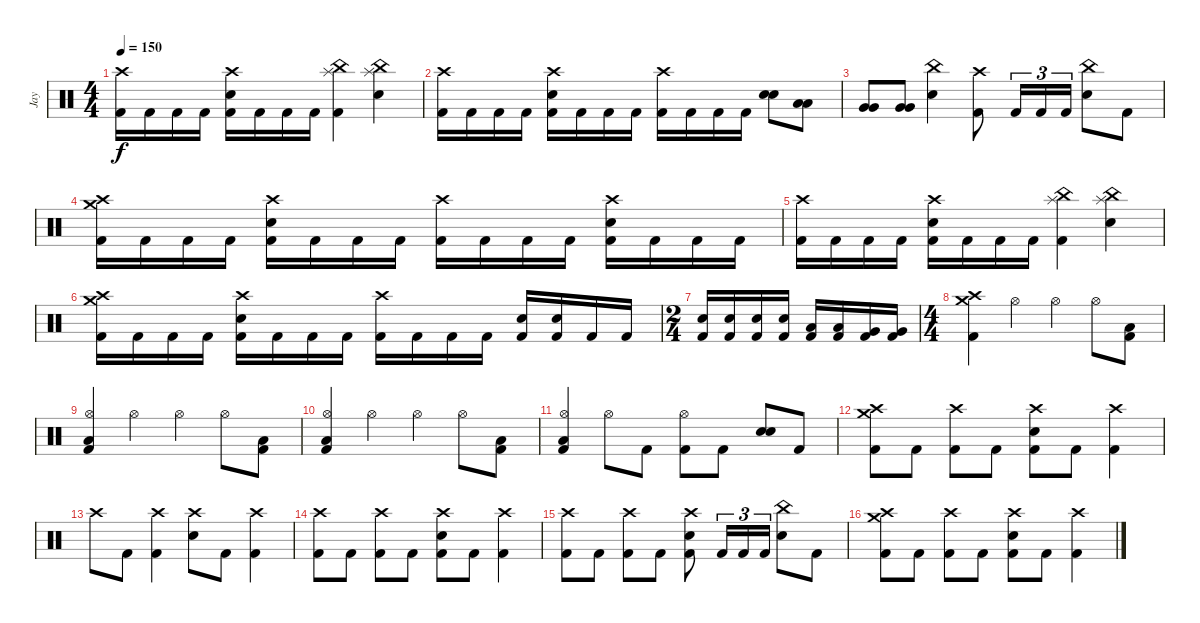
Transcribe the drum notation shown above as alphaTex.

\track ("Jay" "Jay") {instrument percussion}
\staff {score}
\articulation defaults
\ts (4 4)
\tempo 150
\clef neutral
\ks c
("Crash high (hit)" "Kick (hit) 2").16{dy f} "Kick (hit) 2".16 "Kick (hit) 2".16 "Kick (hit) 2".16 ("Crash high (hit)" "Electric Snare (hit)" "Kick (hit) 2").16 "Kick (hit) 2".16 "Kick (hit) 2".16 "Kick (hit) 2".16 ("China (hit)" "Splash (hit)" "Kick (hit) 2").4 ("China (hit)" "Splash (hit)" "Electric Snare (hit)").4 |
("Crash high (hit)" "Kick (hit) 2").16 "Kick (hit) 2".16 "Kick (hit) 2".16 "Kick (hit) 2".16 ("Crash high (hit)" "Electric Snare (hit)" "Kick (hit) 2").16 "Kick (hit) 2".16 "Kick (hit) 2".16 "Kick (hit) 2".16 ("Crash high (hit)" "Kick (hit) 2").16 "Kick (hit) 2".16 "Kick (hit) 2".16 "Kick (hit) 2".16 ("Electric Snare (hit)" "Electric Snare (hit)").8{bu 120} ("Low Tom (hit)" "Low Tom (hit)").8{bu 120} |
("Very Low Tom (hit)" "Very Low Tom (hit)").8{bu 120} ("Very Low Tom (hit)" "Very Low Tom (hit)").8{bu 120} ("China (hit)" "Electric Snare (hit)").4 ("Crash high (hit)" "Kick (hit) 2").8 "Kick (hit) 2".16{tu (3 2)} "Kick (hit) 2".16{tu (3 2)} "Kick (hit) 2".16{tu (3 2)} ("China (hit)" "Electric Snare (hit)").8 "Kick (hit) 2".8 |
("Crash high (hit)" "Crash medium (hit)" "Kick (hit) 2").16 "Kick (hit) 2".16 "Kick (hit) 2".16 "Kick (hit) 2".16 ("Crash high (hit)" "Electric Snare (hit)" "Kick (hit) 2").16 "Kick (hit) 2".16 "Kick (hit) 2".16 "Kick (hit) 2".16 ("Crash high (hit)" "Kick (hit) 2").16 "Kick (hit) 2".16 "Kick (hit) 2".16 "Kick (hit) 2".16 ("Crash high (hit)" "Electric Snare (hit)" "Kick (hit) 2").16 "Kick (hit) 2".16 "Kick (hit) 2".16 "Kick (hit) 2".16 |
("Crash high (hit)" "Kick (hit) 2").16 "Kick (hit) 2".16 "Kick (hit) 2".16 "Kick (hit) 2".16 ("Crash high (hit)" "Electric Snare (hit)" "Kick (hit) 2").16 "Kick (hit) 2".16 "Kick (hit) 2".16 "Kick (hit) 2".16 ("China (hit)" "Splash (hit)" "Kick (hit) 2").4 ("China (hit)" "Splash (hit)" "Electric Snare (hit)").4 |
("Crash high (hit)" "Crash medium (hit)" "Kick (hit) 2").16 "Kick (hit) 2".16 "Kick (hit) 2".16 "Kick (hit) 2".16 ("Crash high (hit)" "Electric Snare (hit)" "Kick (hit) 2").16 "Kick (hit) 2".16 "Kick (hit) 2".16 "Kick (hit) 2".16 ("Crash high (hit)" "Kick (hit) 2").16 "Kick (hit) 2".16 "Kick (hit) 2".16 "Kick (hit) 2".16 ("Electric Snare (hit)" "Kick (hit) 2").16 ("Electric Snare (hit)" "Kick (hit) 2").16 "Kick (hit) 2".16 "Kick (hit) 2".16 |
\ts (2 4)
("Electric Snare (hit)" "Kick (hit) 2").16 ("Electric Snare (hit)" "Kick (hit) 2").16 ("Electric Snare (hit)" "Kick (hit) 2").16 ("Electric Snare (hit)" "Kick (hit) 2").16 ("Low Tom (hit)" "Kick (hit) 2").16 ("Low Tom (hit)" "Kick (hit) 2").16 ("Very Low Tom (hit)" "Kick (hit) 2").16 ("Very Low Tom (hit)" "Kick (hit) 2").16 |
\ts (4 4)
("Crash high (hit)" "Crash medium (hit)" "Kick (hit) 2").4 "Hi-Hat (open)".4 "Hi-Hat (open)".4 "Hi-Hat (open)".8 ("Low Floor Tom (hit)" "Kick (hit) 2").8 |
("Hi-Hat (open)" "Low Floor Tom (hit)" "Kick (hit) 2").4 "Hi-Hat (open)".4 "Hi-Hat (open)".4 "Hi-Hat (open)".8 ("Low Floor Tom (hit)" "Kick (hit) 2").8 |
("Hi-Hat (open)" "Low Floor Tom (hit)" "Kick (hit) 2").4 "Hi-Hat (open)".4 "Hi-Hat (open)".4 "Hi-Hat (open)".8 ("Low Floor Tom (hit)" "Kick (hit) 2").8 |
("Hi-Hat (open)" "Low Floor Tom (hit)" "Kick (hit) 2").4 "Hi-Hat (open)".8 "Kick (hit) 2".8 ("Hi-Hat (open)" "Kick (hit) 2").8 "Kick (hit) 2".8 ("Electric Snare (hit)" "Electric Snare (hit)").8{bu 240} "Kick (hit) 2".8 |
("Crash high (hit)" "Crash medium (hit)" "Kick (hit) 2").8 "Kick (hit) 2".8 ("Crash high (hit)" "Kick (hit) 2").8 "Kick (hit) 2".8 ("Crash high (hit)" "Electric Snare (hit)" "Kick (hit) 2").8 "Kick (hit) 2".8 ("Crash high (hit)" "Kick (hit) 2").4 |
"Crash high (hit)".8 "Kick (hit) 2".8 ("Crash high (hit)" "Kick (hit) 2").4 ("Crash high (hit)" "Electric Snare (hit)").8 "Kick (hit) 2".8 ("Crash high (hit)" "Kick (hit) 2").4 |
("Crash high (hit)" "Kick (hit) 2").8 "Kick (hit) 2".8 ("Crash high (hit)" "Kick (hit) 2").8 "Kick (hit) 2".8 ("Crash high (hit)" "Electric Snare (hit)" "Kick (hit) 2").8 "Kick (hit) 2".8 ("Crash high (hit)" "Kick (hit) 2").4 |
("Crash high (hit)" "Kick (hit) 2").8 "Kick (hit) 2".8 ("Crash high (hit)" "Kick (hit) 2").8 "Kick (hit) 2".8 ("Crash high (hit)" "Electric Snare (hit)" "Kick (hit) 2").8 "Kick (hit) 2".16{tu (3 2)} "Kick (hit) 2".16{tu (3 2)} "Kick (hit) 2".16{tu (3 2)} ("China (hit)" "Electric Snare (hit)").8 "Kick (hit) 2".8 |
("Crash high (hit)" "Crash medium (hit)" "Kick (hit) 2").8 "Kick (hit) 2".8 ("Crash high (hit)" "Kick (hit) 2").8 "Kick (hit) 2".8 ("Crash high (hit)" "Electric Snare (hit)" "Kick (hit) 2").8 "Kick (hit) 2".8 ("Crash high (hit)" "Kick (hit) 2").4
